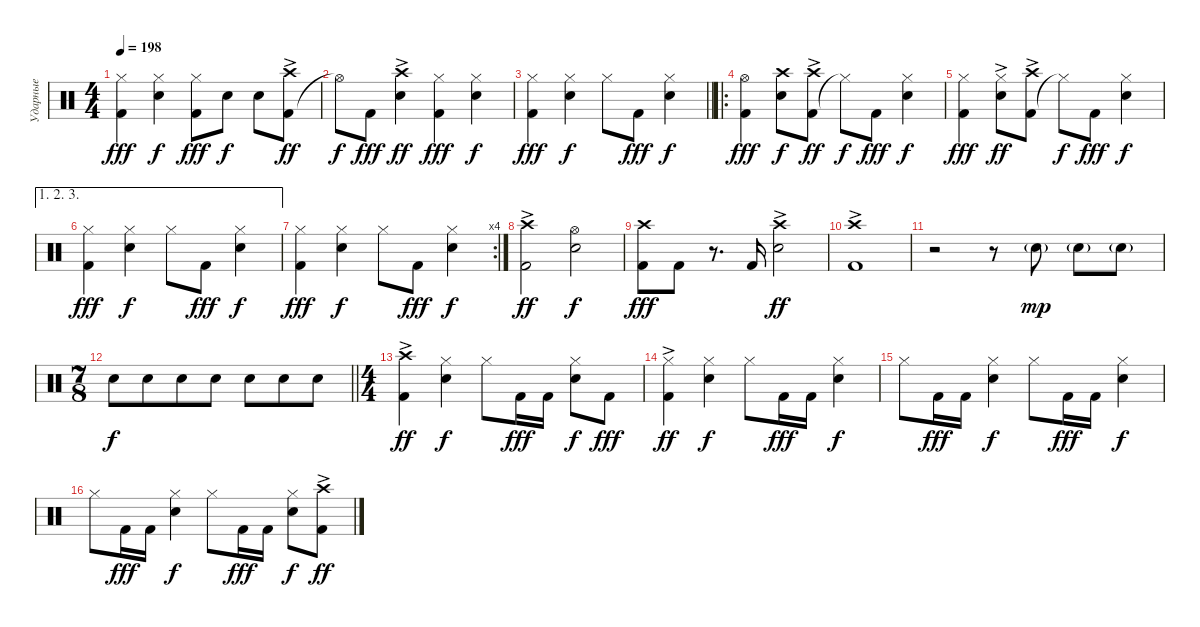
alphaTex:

\track ("Ударные" "Ударные") {instrument percussion}
\staff {score}
\articulation defaults
\ts (4 4)
\tempo 198
\clef neutral
\ks c
("Kick (hit) 2" "Hi-Hat (closed)").4{dy fff} ("Snare (hit) 2" "Hi-Hat (closed)").4{dy f} ("Kick (hit) 2" "Hi-Hat (closed)").8{dy fff} "Snare (hit) 2".8{dy f} "Snare (hit) 2".8 ("Kick (hit) 2" "Crash high (hit)"{ac}).8{dy ff} |
"Hi-Hat (open)"{t}.8{dy f} "Kick (hit) 2".8{dy fff} ("Snare (hit) 2" "Crash high (hit)"{ac}).4{dy ff} ("Kick (hit) 2" "Hi-Hat (closed)").4{dy fff} ("Snare (hit) 2" "Hi-Hat (closed)").4{dy f} |
\barLineRight lightlight
("Kick (hit) 2" "Hi-Hat (closed)").4{dy fff} ("Snare (hit) 2" "Hi-Hat (closed)").4{dy f} "Hi-Hat (closed)".8 "Kick (hit) 2".8{dy fff} ("Snare (hit) 2" "Hi-Hat (closed)").4{dy f} |
\ro
("Kick (hit) 2" "Hi-Hat (open)").4{dy fff} ("Snare (hit) 2" "Crash high (hit)").8{dy f} ("Kick (hit) 2" "Crash high (hit)"{ac}).8{dy ff} "Hi-Hat (closed)"{t}.8{dy f} "Kick (hit) 2".8{dy fff} ("Snare (hit) 2" "Hi-Hat (closed)").4{dy f} |
("Kick (hit) 2" "Hi-Hat (closed)").4{dy fff} ("Snare (hit) 2" "Hi-Hat (closed)"{ac}).8{dy ff} ("Kick (hit) 2" "Crash high (hit)"{ac}).8 "Hi-Hat (closed)"{t}.8{dy f} "Kick (hit) 2".8{dy fff} ("Snare (hit) 2" "Hi-Hat (closed)").4{dy f} |
\ae (1 2 3)
("Kick (hit) 2" "Hi-Hat (closed)").4{dy fff} ("Snare (hit) 2" "Hi-Hat (closed)").4{dy f} "Hi-Hat (closed)".8 "Kick (hit) 2".8{dy fff} ("Snare (hit) 2" "Hi-Hat (closed)").4{dy f} |
\rc 4
("Kick (hit) 2" "Hi-Hat (closed)").4{dy fff} ("Snare (hit) 2" "Hi-Hat (closed)").4{dy f} "Hi-Hat (closed)".8 "Kick (hit) 2".8{dy fff} ("Snare (hit) 2" "Hi-Hat (closed)").4{dy f} |
("Kick (hit) 2" "Crash high (hit)"{ac}).2{dy ff} ("Snare (hit) 2" "Hi-Hat (open)").2{dy f} |
("Kick (hit) 2" "Crash high (hit)").8{dy fff} "Kick (hit) 2".8 r.8{d} "Kick (hit) 2".16 ("Snare (hit) 2" "Crash high (hit)"{ac}).2{dy ff} |
("Kick (hit) 2" "Crash high (hit)"{ac}).1 |
r.2 r.8 "Snare (hit) 2"{g}.8{dy mp} "Snare (hit) 2"{g}.8 "Snare (hit) 2"{g}.8 |
\ts (7 8)
\barLineRight lightlight "Snare (hit) 2".8{dy f} "Snare (hit) 2".8 "Snare (hit) 2".8 "Snare (hit) 2".8 "Snare (hit) 2".8 "Snare (hit) 2".8 "Snare (hit) 2".8
|
\ts (4 4)
("Kick (hit) 2" "Crash high (hit)"{ac}).4{dy ff} ("Snare (hit) 2" "Hi-Hat (closed)").4{dy f} "Hi-Hat (closed)".8 "Kick (hit) 2".16{dy fff} "Kick (hit) 2".16 ("Snare (hit) 2" "Hi-Hat (closed)").8{dy f} "Kick (hit) 2".8{dy fff} |
("Kick (hit) 2" "Hi-Hat (closed)"{ac}).4{dy ff} ("Snare (hit) 2" "Hi-Hat (closed)").4{dy f} "Hi-Hat (closed)".8 "Kick (hit) 2".16{dy fff} "Kick (hit) 2".16 ("Snare (hit) 2" "Hi-Hat (closed)").4{dy f} |
"Hi-Hat (closed)".8 "Kick (hit) 2".16{dy fff} "Kick (hit) 2".16 ("Snare (hit) 2" "Hi-Hat (closed)").4{dy f} "Hi-Hat (closed)".8 "Kick (hit) 2".16{dy fff} "Kick (hit) 2".16 ("Snare (hit) 2" "Hi-Hat (closed)").4{dy f} |
"Hi-Hat (closed)".8 "Kick (hit) 2".16{dy fff} "Kick (hit) 2".16 ("Snare (hit) 2" "Hi-Hat (closed)").4{dy f} "Hi-Hat (closed)".8 "Kick (hit) 2".16{dy fff} "Kick (hit) 2".16 ("Snare (hit) 2" "Hi-Hat (closed)").8{dy f} ("Kick (hit) 2" "Crash high (hit)"{ac}).8{dy ff}
